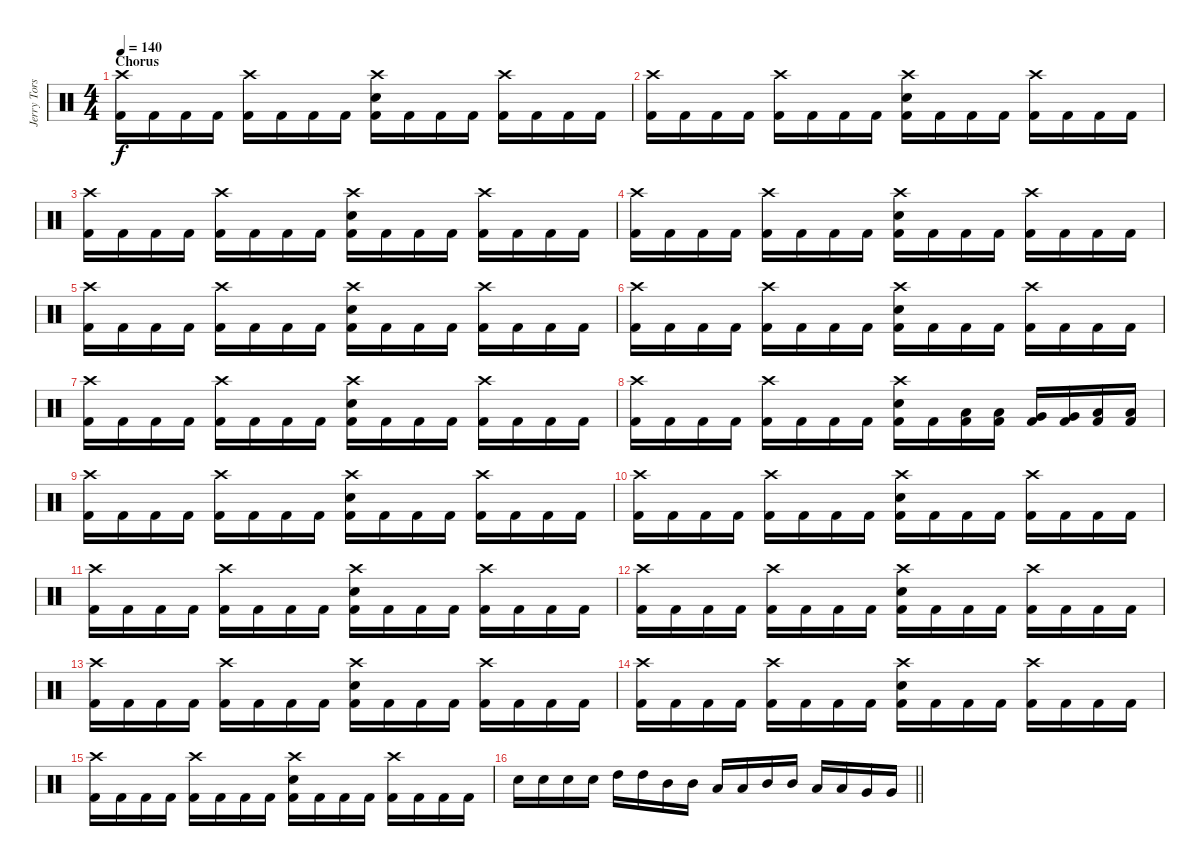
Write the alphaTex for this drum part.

\track ("Jerry Torstensson" "Jerry Tors") {instrument percussion}
\staff {score}
\articulation defaults
\ts (4 4)
\section ("" "Chorus")
\tempo 140
\clef neutral
\ks c
("Crash high (hit)" "Kick (hit) 2").16{dy f} "Kick (hit) 2".16 "Kick (hit) 2".16 "Kick (hit) 2".16 ("Crash high (hit)" "Kick (hit) 2").16 "Kick (hit) 2".16 "Kick (hit) 2".16 "Kick (hit) 2".16 ("Crash high (hit)" "Snare (hit) 2" "Kick (hit) 2").16 "Kick (hit) 2".16 "Kick (hit) 2".16 "Kick (hit) 2".16 ("Crash high (hit)" "Kick (hit) 2").16 "Kick (hit) 2".16 "Kick (hit) 2".16 "Kick (hit) 2".16 |
("Crash high (hit)" "Kick (hit) 2").16 "Kick (hit) 2".16 "Kick (hit) 2".16 "Kick (hit) 2".16 ("Crash high (hit)" "Kick (hit) 2").16 "Kick (hit) 2".16 "Kick (hit) 2".16 "Kick (hit) 2".16 ("Crash high (hit)" "Snare (hit) 2" "Kick (hit) 2").16 "Kick (hit) 2".16 "Kick (hit) 2".16 "Kick (hit) 2".16 ("Crash high (hit)" "Kick (hit) 2").16 "Kick (hit) 2".16 "Kick (hit) 2".16 "Kick (hit) 2".16 |
("Crash high (hit)" "Kick (hit) 2").16 "Kick (hit) 2".16 "Kick (hit) 2".16 "Kick (hit) 2".16 ("Crash high (hit)" "Kick (hit) 2").16 "Kick (hit) 2".16 "Kick (hit) 2".16 "Kick (hit) 2".16 ("Crash high (hit)" "Snare (hit) 2" "Kick (hit) 2").16 "Kick (hit) 2".16 "Kick (hit) 2".16 "Kick (hit) 2".16 ("Crash high (hit)" "Kick (hit) 2").16 "Kick (hit) 2".16 "Kick (hit) 2".16 "Kick (hit) 2".16 |
("Crash high (hit)" "Kick (hit) 2").16 "Kick (hit) 2".16 "Kick (hit) 2".16 "Kick (hit) 2".16 ("Crash high (hit)" "Kick (hit) 2").16 "Kick (hit) 2".16 "Kick (hit) 2".16 "Kick (hit) 2".16 ("Crash high (hit)" "Snare (hit) 2" "Kick (hit) 2").16 "Kick (hit) 2".16 "Kick (hit) 2".16 "Kick (hit) 2".16 ("Crash high (hit)" "Kick (hit) 2").16 "Kick (hit) 2".16 "Kick (hit) 2".16 "Kick (hit) 2".16 |
("Crash high (hit)" "Kick (hit) 2").16 "Kick (hit) 2".16 "Kick (hit) 2".16 "Kick (hit) 2".16 ("Crash high (hit)" "Kick (hit) 2").16 "Kick (hit) 2".16 "Kick (hit) 2".16 "Kick (hit) 2".16 ("Crash high (hit)" "Snare (hit) 2" "Kick (hit) 2").16 "Kick (hit) 2".16 "Kick (hit) 2".16 "Kick (hit) 2".16 ("Crash high (hit)" "Kick (hit) 2").16 "Kick (hit) 2".16 "Kick (hit) 2".16 "Kick (hit) 2".16 |
("Crash high (hit)" "Kick (hit) 2").16 "Kick (hit) 2".16 "Kick (hit) 2".16 "Kick (hit) 2".16 ("Crash high (hit)" "Kick (hit) 2").16 "Kick (hit) 2".16 "Kick (hit) 2".16 "Kick (hit) 2".16 ("Crash high (hit)" "Snare (hit) 2" "Kick (hit) 2").16 "Kick (hit) 2".16 "Kick (hit) 2".16 "Kick (hit) 2".16 ("Crash high (hit)" "Kick (hit) 2").16 "Kick (hit) 2".16 "Kick (hit) 2".16 "Kick (hit) 2".16 |
("Crash high (hit)" "Kick (hit) 2").16 "Kick (hit) 2".16 "Kick (hit) 2".16 "Kick (hit) 2".16 ("Crash high (hit)" "Kick (hit) 2").16 "Kick (hit) 2".16 "Kick (hit) 2".16 "Kick (hit) 2".16 ("Crash high (hit)" "Snare (hit) 2" "Kick (hit) 2").16 "Kick (hit) 2".16 "Kick (hit) 2".16 "Kick (hit) 2".16 ("Crash high (hit)" "Kick (hit) 2").16 "Kick (hit) 2".16 "Kick (hit) 2".16 "Kick (hit) 2".16 |
("Crash high (hit)" "Kick (hit) 2").16 "Kick (hit) 2".16 "Kick (hit) 2".16 "Kick (hit) 2".16 ("Crash high (hit)" "Kick (hit) 2").16 "Kick (hit) 2".16 "Kick (hit) 2".16 "Kick (hit) 2".16 ("Crash high (hit)" "Snare (hit) 2" "Kick (hit) 2").16 "Kick (hit) 2".16 ("Low Tom (hit)" "Kick (hit) 2").16 ("Low Tom (hit)" "Kick (hit) 2").16 ("Very Low Tom (hit)" "Kick (hit) 2").16 ("Very Low Tom (hit)" "Kick (hit) 2").16 ("Low Floor Tom (hit)" "Kick (hit) 2").16 ("Low Floor Tom (hit)" "Kick (hit) 2").16 |
("Crash high (hit)" "Kick (hit) 2").16 "Kick (hit) 2".16 "Kick (hit) 2".16 "Kick (hit) 2".16 ("Crash high (hit)" "Kick (hit) 2").16 "Kick (hit) 2".16 "Kick (hit) 2".16 "Kick (hit) 2".16 ("Crash high (hit)" "Snare (hit) 2" "Kick (hit) 2").16 "Kick (hit) 2".16 "Kick (hit) 2".16 "Kick (hit) 2".16 ("Crash high (hit)" "Kick (hit) 2").16 "Kick (hit) 2".16 "Kick (hit) 2".16 "Kick (hit) 2".16 |
("Crash high (hit)" "Kick (hit) 2").16 "Kick (hit) 2".16 "Kick (hit) 2".16 "Kick (hit) 2".16 ("Crash high (hit)" "Kick (hit) 2").16 "Kick (hit) 2".16 "Kick (hit) 2".16 "Kick (hit) 2".16 ("Crash high (hit)" "Snare (hit) 2" "Kick (hit) 2").16 "Kick (hit) 2".16 "Kick (hit) 2".16 "Kick (hit) 2".16 ("Crash high (hit)" "Kick (hit) 2").16 "Kick (hit) 2".16 "Kick (hit) 2".16 "Kick (hit) 2".16 |
("Crash high (hit)" "Kick (hit) 2").16 "Kick (hit) 2".16 "Kick (hit) 2".16 "Kick (hit) 2".16 ("Crash high (hit)" "Kick (hit) 2").16 "Kick (hit) 2".16 "Kick (hit) 2".16 "Kick (hit) 2".16 ("Crash high (hit)" "Snare (hit) 2" "Kick (hit) 2").16 "Kick (hit) 2".16 "Kick (hit) 2".16 "Kick (hit) 2".16 ("Crash high (hit)" "Kick (hit) 2").16 "Kick (hit) 2".16 "Kick (hit) 2".16 "Kick (hit) 2".16 |
("Crash high (hit)" "Kick (hit) 2").16 "Kick (hit) 2".16 "Kick (hit) 2".16 "Kick (hit) 2".16 ("Crash high (hit)" "Kick (hit) 2").16 "Kick (hit) 2".16 "Kick (hit) 2".16 "Kick (hit) 2".16 ("Crash high (hit)" "Snare (hit) 2" "Kick (hit) 2").16 "Kick (hit) 2".16 "Kick (hit) 2".16 "Kick (hit) 2".16 ("Crash high (hit)" "Kick (hit) 2").16 "Kick (hit) 2".16 "Kick (hit) 2".16 "Kick (hit) 2".16 |
("Crash high (hit)" "Kick (hit) 2").16 "Kick (hit) 2".16 "Kick (hit) 2".16 "Kick (hit) 2".16 ("Crash high (hit)" "Kick (hit) 2").16 "Kick (hit) 2".16 "Kick (hit) 2".16 "Kick (hit) 2".16 ("Crash high (hit)" "Snare (hit) 2" "Kick (hit) 2").16 "Kick (hit) 2".16 "Kick (hit) 2".16 "Kick (hit) 2".16 ("Crash high (hit)" "Kick (hit) 2").16 "Kick (hit) 2".16 "Kick (hit) 2".16 "Kick (hit) 2".16 |
("Crash high (hit)" "Kick (hit) 2").16 "Kick (hit) 2".16 "Kick (hit) 2".16 "Kick (hit) 2".16 ("Crash high (hit)" "Kick (hit) 2").16 "Kick (hit) 2".16 "Kick (hit) 2".16 "Kick (hit) 2".16 ("Crash high (hit)" "Snare (hit) 2" "Kick (hit) 2").16 "Kick (hit) 2".16 "Kick (hit) 2".16 "Kick (hit) 2".16 ("Crash high (hit)" "Kick (hit) 2").16 "Kick (hit) 2".16 "Kick (hit) 2".16 "Kick (hit) 2".16 |
("Crash high (hit)" "Kick (hit) 2").16 "Kick (hit) 2".16 "Kick (hit) 2".16 "Kick (hit) 2".16 ("Crash high (hit)" "Kick (hit) 2").16 "Kick (hit) 2".16 "Kick (hit) 2".16 "Kick (hit) 2".16 ("Crash high (hit)" "Snare (hit) 2" "Kick (hit) 2").16 "Kick (hit) 2".16 "Kick (hit) 2".16 "Kick (hit) 2".16 ("Crash high (hit)" "Kick (hit) 2").16 "Kick (hit) 2".16 "Kick (hit) 2".16 "Kick (hit) 2".16 |
\barLineRight lightlight "Snare (hit) 2".16 "Snare (hit) 2".16 "Snare (hit) 2".16 "Snare (hit) 2".16 "High Tom (hit)".16 "High Tom (hit)".16 "Mid Tom (hit)".16 "Mid Tom (hit)".16 "Low Tom (hit)".16 "Low Tom (hit)".16 "Mid Tom (hit)".16 "Mid Tom (hit)".16 "Low Tom (hit)".16 "Low Tom (hit)".16 "Very Low Tom (hit)".16 "Very Low Tom (hit)".16
